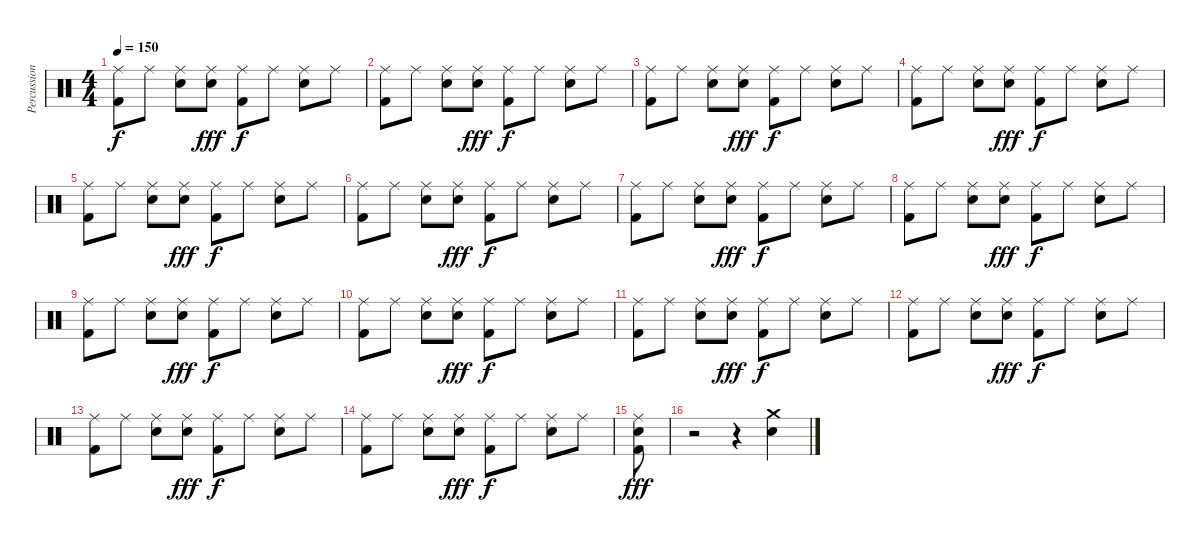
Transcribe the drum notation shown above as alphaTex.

\track ("Percussions" "Percussion") {instrument percussion}
\staff {score}
\articulation defaults
\ts (4 4)
\tempo 150
\clef neutral
\ks c
("Ride (middle)" "Kick (hit) 2").8{dy f} "Ride (middle)".8 ("Ride (middle)" "Electric Snare (hit)").8 ("Ride (middle)" "Electric Snare (hit)").8{dy fff} ("Ride (middle)" "Kick (hit) 2").8{dy f} "Ride (middle)".8 ("Ride (middle)" "Electric Snare (hit)").8 "Ride (middle)".8 |
("Ride (middle)" "Kick (hit) 2").8 "Ride (middle)".8 ("Ride (middle)" "Electric Snare (hit)").8 ("Ride (middle)" "Electric Snare (hit)").8{dy fff} ("Ride (middle)" "Kick (hit) 2").8{dy f} "Ride (middle)".8 ("Ride (middle)" "Electric Snare (hit)").8 "Ride (middle)".8 |
("Ride (middle)" "Kick (hit) 2").8 "Ride (middle)".8 ("Ride (middle)" "Electric Snare (hit)").8 ("Ride (middle)" "Electric Snare (hit)").8{dy fff} ("Ride (middle)" "Kick (hit) 2").8{dy f} "Ride (middle)".8 ("Ride (middle)" "Electric Snare (hit)").8 "Ride (middle)".8 |
("Ride (middle)" "Kick (hit) 2").8 "Ride (middle)".8 ("Ride (middle)" "Electric Snare (hit)").8 ("Ride (middle)" "Electric Snare (hit)").8{dy fff} ("Ride (middle)" "Kick (hit) 2").8{dy f} "Ride (middle)".8 ("Ride (middle)" "Electric Snare (hit)").8 "Ride (middle)".8 |
("Ride (middle)" "Kick (hit) 2").8 "Ride (middle)".8 ("Ride (middle)" "Electric Snare (hit)").8 ("Ride (middle)" "Electric Snare (hit)").8{dy fff} ("Ride (middle)" "Kick (hit) 2").8{dy f} "Ride (middle)".8 ("Ride (middle)" "Electric Snare (hit)").8 "Ride (middle)".8 |
("Ride (middle)" "Kick (hit) 2").8 "Ride (middle)".8 ("Ride (middle)" "Electric Snare (hit)").8 ("Ride (middle)" "Electric Snare (hit)").8{dy fff} ("Ride (middle)" "Kick (hit) 2").8{dy f} "Ride (middle)".8 ("Ride (middle)" "Electric Snare (hit)").8 "Ride (middle)".8 |
("Ride (middle)" "Kick (hit) 2").8 "Ride (middle)".8 ("Ride (middle)" "Electric Snare (hit)").8 ("Ride (middle)" "Electric Snare (hit)").8{dy fff} ("Ride (middle)" "Kick (hit) 2").8{dy f} "Ride (middle)".8 ("Ride (middle)" "Electric Snare (hit)").8 "Ride (middle)".8 |
("Ride (middle)" "Kick (hit) 2").8 "Ride (middle)".8 ("Ride (middle)" "Electric Snare (hit)").8 ("Ride (middle)" "Electric Snare (hit)").8{dy fff} ("Ride (middle)" "Kick (hit) 2").8{dy f} "Ride (middle)".8 ("Ride (middle)" "Electric Snare (hit)").8 "Ride (middle)".8 |
("Ride (middle)" "Kick (hit) 2").8 "Ride (middle)".8 ("Ride (middle)" "Electric Snare (hit)").8 ("Ride (middle)" "Electric Snare (hit)").8{dy fff} ("Ride (middle)" "Kick (hit) 2").8{dy f} "Ride (middle)".8 ("Ride (middle)" "Electric Snare (hit)").8 "Ride (middle)".8 |
("Ride (middle)" "Kick (hit) 2").8 "Ride (middle)".8 ("Ride (middle)" "Electric Snare (hit)").8 ("Ride (middle)" "Electric Snare (hit)").8{dy fff} ("Ride (middle)" "Kick (hit) 2").8{dy f} "Ride (middle)".8 ("Ride (middle)" "Electric Snare (hit)").8 "Ride (middle)".8 |
("Ride (middle)" "Kick (hit) 2").8 "Ride (middle)".8 ("Ride (middle)" "Electric Snare (hit)").8 ("Ride (middle)" "Electric Snare (hit)").8{dy fff} ("Ride (middle)" "Kick (hit) 2").8{dy f} "Ride (middle)".8 ("Ride (middle)" "Electric Snare (hit)").8 "Ride (middle)".8 |
("Ride (middle)" "Kick (hit) 2").8 "Ride (middle)".8 ("Ride (middle)" "Electric Snare (hit)").8 ("Ride (middle)" "Electric Snare (hit)").8{dy fff} ("Ride (middle)" "Kick (hit) 2").8{dy f} "Ride (middle)".8 ("Ride (middle)" "Electric Snare (hit)").8 "Ride (middle)".8 |
("Ride (middle)" "Kick (hit) 2").8 "Ride (middle)".8 ("Ride (middle)" "Electric Snare (hit)").8 ("Ride (middle)" "Electric Snare (hit)").8{dy fff} ("Ride (middle)" "Kick (hit) 2").8{dy f} "Ride (middle)".8 ("Ride (middle)" "Electric Snare (hit)").8 "Ride (middle)".8 |
("Ride (middle)" "Kick (hit) 2").8 "Ride (middle)".8 ("Ride (middle)" "Electric Snare (hit)").8 ("Ride (middle)" "Electric Snare (hit)").8{dy fff} ("Ride (middle)" "Kick (hit) 2").8{dy f} "Ride (middle)".8 ("Ride (middle)" "Electric Snare (hit)").8 "Ride (middle)".8 |
("Ride (middle)" "Electric Snare (hit)" "Kick (hit) 2").8{dy fff} |
r.2 r.4 ("Crash medium (hit)" "Electric Snare (hit)").4
